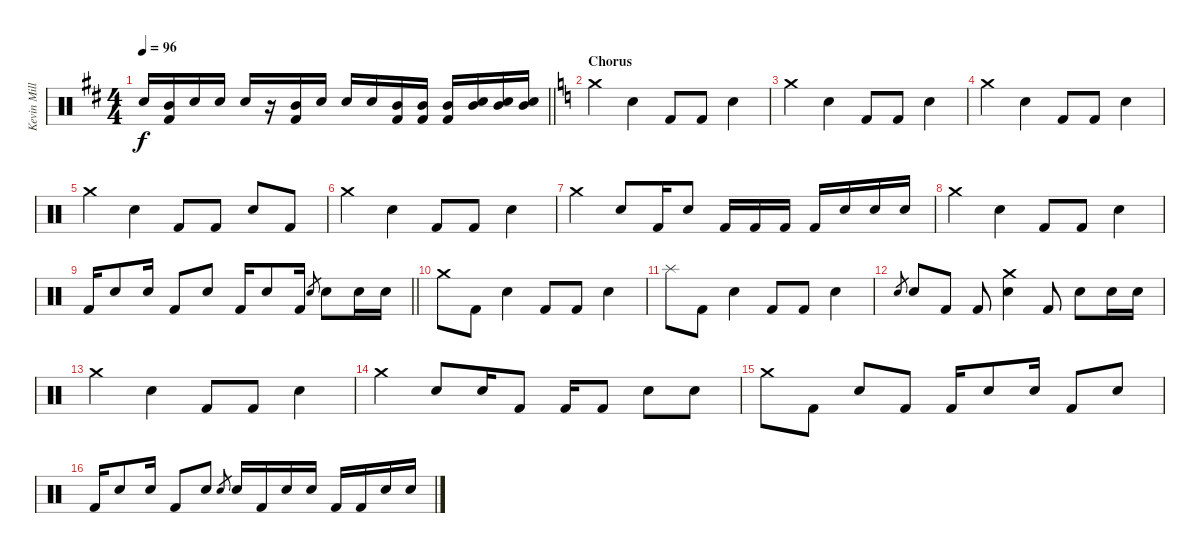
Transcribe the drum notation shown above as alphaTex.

\track ("Kevin Miller (Drums)" "Kevin Mill") {instrument percussion}
\staff {score}
\articulation defaults
\ts (4 4)
\tempo 96
\clef neutral
\barLineRight lightlight
\ks d "Electric Snare (hit)".16{dy f}
("Kick (hit) 2" "Mid Tom (hit)").16 "Electric Snare (hit)".16 "Electric Snare (hit)".16 "Electric Snare (hit)".16 r.16 ("Kick (hit) 2" "Mid Tom (hit)").16 "Electric Snare (hit)".16 "Electric Snare (hit)".16 "Electric Snare (hit)".16 ("Kick (hit) 2" "Mid Tom (hit)").16 ("Kick (hit) 2" "Mid Tom (hit)").16 ("Kick (hit) 2" "Mid Tom (hit)").16 ("Electric Snare (hit)" "Mid Tom (hit)").16 ("Electric Snare (hit)" "Mid Tom (hit)").16 ("Electric Snare (hit)" "Mid Tom (hit)").16 |
\section ("" "Chorus")
\ks c "Crash medium (hit)".4 "Electric Snare (hit)".4 "Kick (hit) 2".8 "Kick (hit) 2".8 "Electric Snare (hit)".4
|
"Crash medium (hit)".4 "Electric Snare (hit)".4 "Kick (hit) 2".8 "Kick (hit) 2".8 "Electric Snare (hit)".4 |
"Crash medium (hit)".4 "Electric Snare (hit)".4 "Kick (hit) 2".8 "Kick (hit) 2".8 "Electric Snare (hit)".4 |
"Crash medium (hit)".4 "Electric Snare (hit)".4 "Kick (hit) 2".8 "Kick (hit) 2".8 "Electric Snare (hit)".8 "Kick (hit) 2".8 |
"Crash medium (hit)".4 "Electric Snare (hit)".4 "Kick (hit) 2".8 "Kick (hit) 2".8 "Electric Snare (hit)".4 |
"Crash medium (hit)".4 "Electric Snare (hit)".8 "Kick (hit) 2".16 "Electric Snare (hit)".8 "Kick (hit) 2".16 "Kick (hit) 2".16 "Kick (hit) 2".16 "Kick (hit) 2".16 "Electric Snare (hit)".16 "Electric Snare (hit)".16 "Electric Snare (hit)".16 |
"Crash medium (hit)".4 "Electric Snare (hit)".4 "Kick (hit) 2".8 "Kick (hit) 2".8 "Electric Snare (hit)".4 |
\barLineRight lightlight "Kick (hit) 2".16 "Electric Snare (hit)".8 "Electric Snare (hit)".16 "Kick (hit) 2".8 "Electric Snare (hit)".8 "Kick (hit) 2".16 "Electric Snare (hit)".8 "Kick (hit) 2".16 "Electric Snare (hit)".8{gr} "Electric Snare (hit)".8 "Electric Snare (hit)".16 "Electric Snare (hit)".16
|
"Crash medium (hit)".8 "Kick (hit) 2".8 "Electric Snare (hit)".4 "Kick (hit) 2".8 "Kick (hit) 2".8 "Electric Snare (hit)".4 |
"Splash (hit)".8 "Kick (hit) 2".8 "Electric Snare (hit)".4 "Kick (hit) 2".8 "Kick (hit) 2".8 "Electric Snare (hit)".4 |
"Electric Snare (hit)".8{gr} "Electric Snare (hit)".8 "Kick (hit) 2".8 "Kick (hit) 2".8 ("Crash medium (hit)" "Electric Snare (hit)").4 "Kick (hit) 2".8 "Electric Snare (hit)".8 "Electric Snare (hit)".16 "Electric Snare (hit)".16 |
"Crash medium (hit)".4 "Electric Snare (hit)".4 "Kick (hit) 2".8 "Kick (hit) 2".8 "Electric Snare (hit)".4 |
"Crash medium (hit)".4 "Electric Snare (hit)".8 "Electric Snare (hit)".16 "Kick (hit) 2".8 "Kick (hit) 2".16 "Kick (hit) 2".8 "Electric Snare (hit)".8 "Electric Snare (hit)".8 |
"Crash medium (hit)".8 "Kick (hit) 2".8 "Electric Snare (hit)".8 "Kick (hit) 2".8 "Kick (hit) 2".16 "Electric Snare (hit)".8 "Electric Snare (hit)".16 "Kick (hit) 2".8 "Electric Snare (hit)".8 |
"Kick (hit) 2".16 "Electric Snare (hit)".8 "Electric Snare (hit)".16 "Kick (hit) 2".8 "Electric Snare (hit)".8 "Electric Snare (hit)".8{gr} "Electric Snare (hit)".16 "Kick (hit) 2".16 "Electric Snare (hit)".16 "Electric Snare (hit)".16 "Kick (hit) 2".16 "Kick (hit) 2".16 "Electric Snare (hit)".16 "Electric Snare (hit)".16
